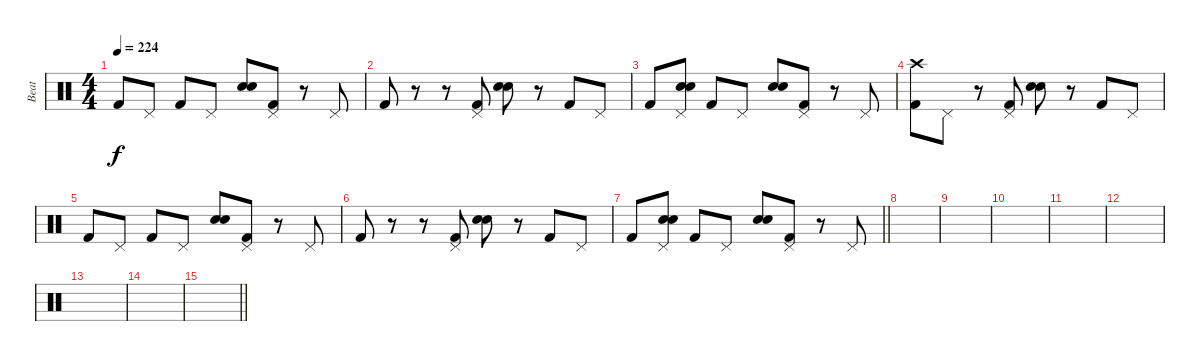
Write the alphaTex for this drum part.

\track ("Beat" "Beat") {instrument percussion}
\staff {score}
\articulation defaults
\ts (4 4)
\tempo 224
\clef neutral
\ks c "Kick (hit) 2".8{dy f} "Pedal Hi-Hat (hit)".8 "Kick (hit) 2".8 "Pedal Hi-Hat (hit)".8
("Snare (hit) 2" "Hand Clap (hit)").8 ("Kick (hit) 2" "Pedal Hi-Hat (hit)").8 r.8 "Pedal Hi-Hat (hit)".8 |
"Kick (hit) 2".8 r.8 r.8 ("Kick (hit) 2" "Pedal Hi-Hat (hit)").8 ("Snare (hit) 2" "Hand Clap (hit)").8 r.8 "Kick (hit) 2".8 "Pedal Hi-Hat (hit)".8 |
"Kick (hit) 2".8 ("Pedal Hi-Hat (hit)" "Snare (hit) 2" "Hand Clap (hit)").8 "Kick (hit) 2".8 "Pedal Hi-Hat (hit)".8 ("Snare (hit) 2" "Hand Clap (hit)").8 ("Kick (hit) 2" "Pedal Hi-Hat (hit)").8 r.8 "Pedal Hi-Hat (hit)".8 |
("Kick (hit) 2" "Crash high (hit)").8 "Pedal Hi-Hat (hit)".8 r.8 ("Kick (hit) 2" "Pedal Hi-Hat (hit)").8 ("Snare (hit) 2" "Hand Clap (hit)").8 r.8 "Kick (hit) 2".8 "Pedal Hi-Hat (hit)".8 |
"Kick (hit) 2".8 "Pedal Hi-Hat (hit)".8 "Kick (hit) 2".8 "Pedal Hi-Hat (hit)".8 ("Snare (hit) 2" "Hand Clap (hit)").8 ("Kick (hit) 2" "Pedal Hi-Hat (hit)").8 r.8 "Pedal Hi-Hat (hit)".8 |
"Kick (hit) 2".8 r.8 r.8 ("Kick (hit) 2" "Pedal Hi-Hat (hit)").8 ("Snare (hit) 2" "Hand Clap (hit)").8 r.8 "Kick (hit) 2".8 "Pedal Hi-Hat (hit)".8 |
\barLineRight lightlight "Kick (hit) 2".8
("Pedal Hi-Hat (hit)" "Snare (hit) 2" "Hand Clap (hit)").8 "Kick (hit) 2".8 "Pedal Hi-Hat (hit)".8 ("Snare (hit) 2" "Hand Clap (hit)").8 ("Kick (hit) 2" "Pedal Hi-Hat (hit)").8 r.8 "Pedal Hi-Hat (hit)".8 |
\section ("" " ")
|
|
|
|
|
|
|
\barLineRight lightlight
